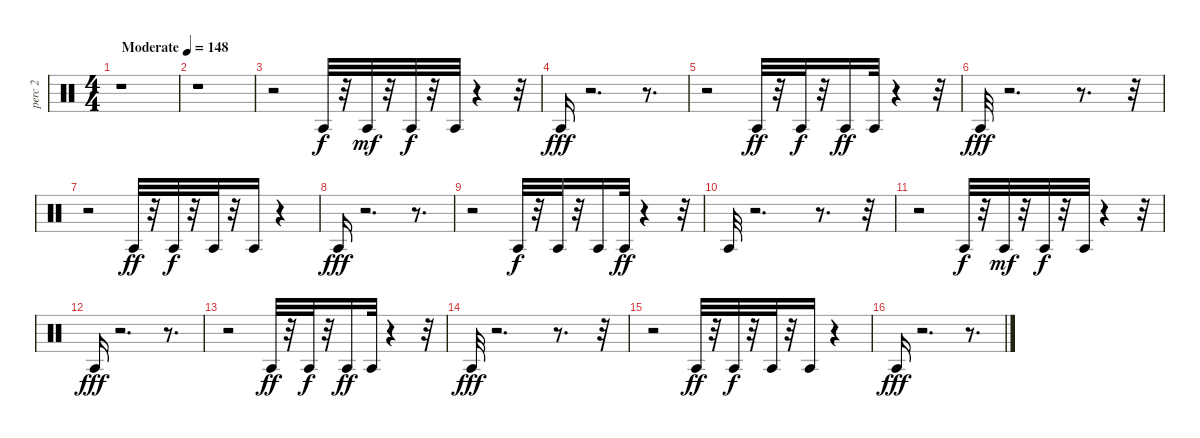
\track ("perc 2              " "perc 2    ") {instrument percussion}
\staff {score}
\articulation defaults
\ts (4 4)
\tempo (148 "Moderate")
\clef neutral
\ks c
r.1{dy f} |
r.1 |
r.2 "Agogo tow (hit)".32 r.32 "Agogo tow (hit)".32{dy mf} r.32 "Agogo tow (hit)".32{dy f} r.32 "Agogo tow (hit)".32 r.4 r.32 |
"Agogo tow (hit)".16{dy fff} r.2{d} r.8{d} |
r.2 "Agogo tow (hit)".32{dy ff} r.32 "Agogo tow (hit)".32{dy f} r.32 "Agogo tow (hit)".16{dy ff} "Agogo tow (hit)".32 r.4 r.32 |
"Agogo tow (hit)".32{dy fff} r.2{d} r.8{d} r.32 |
r.2 "Agogo tow (hit)".32{dy ff} r.32 "Agogo tow (hit)".32{dy f} r.32 "Agogo tow (hit)".32 r.32 "Agogo tow (hit)".16 r.4 |
"Agogo tow (hit)".16{dy fff} r.2{d} r.8{d} |
r.2 "Agogo tow (hit)".32{dy f} r.32 "Agogo tow (hit)".32 r.32 "Agogo tow (hit)".16 "Agogo tow (hit)".32{dy ff} r.4 r.32 |
"Agogo tow (hit)".32 r.2{d} r.8{d} r.32 |
r.2 "Agogo tow (hit)".32{dy f} r.32 "Agogo tow (hit)".32{dy mf} r.32 "Agogo tow (hit)".32{dy f} r.32 "Agogo tow (hit)".32 r.4 r.32 |
"Agogo tow (hit)".16{dy fff} r.2{d} r.8{d} |
r.2 "Agogo tow (hit)".32{dy ff} r.32 "Agogo tow (hit)".32{dy f} r.32 "Agogo tow (hit)".16{dy ff} "Agogo tow (hit)".32 r.4 r.32 |
"Agogo tow (hit)".32{dy fff} r.2{d} r.8{d} r.32 |
r.2 "Agogo tow (hit)".32{dy ff} r.32 "Agogo tow (hit)".32{dy f} r.32 "Agogo tow (hit)".32 r.32 "Agogo tow (hit)".16 r.4 |
"Agogo tow (hit)".16{dy fff} r.2{d} r.8{d}
